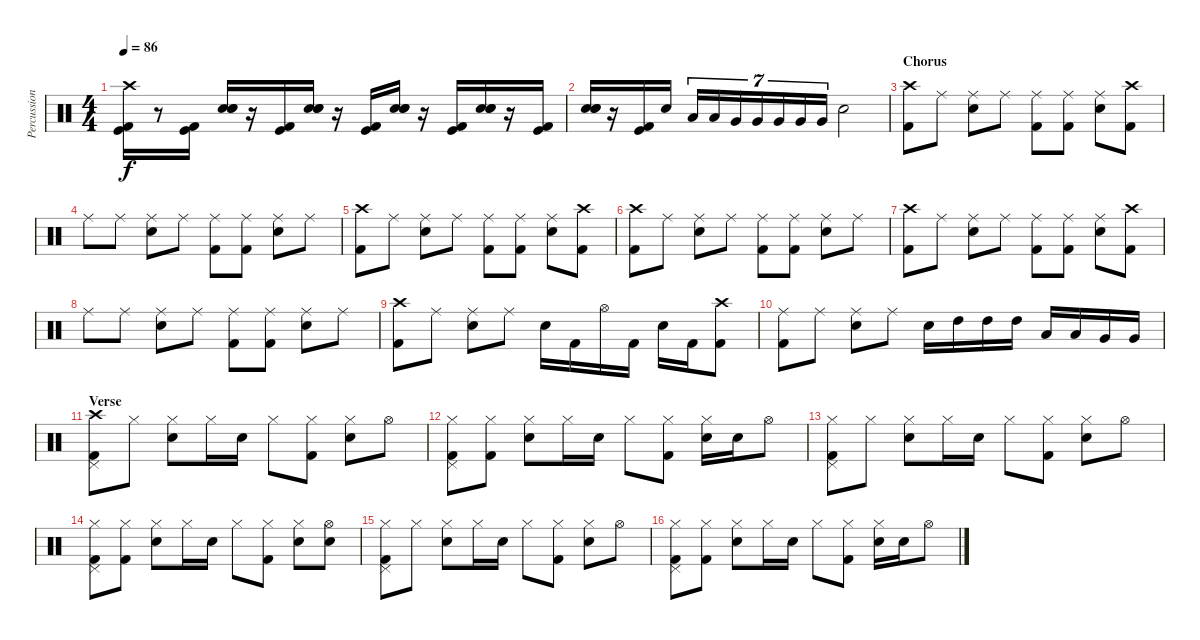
\track ("Percussions (from MIDI)" "Percussion") {instrument percussion}
\staff {score}
\articulation defaults
\ts (4 4)
\tempo 86
\clef neutral
\ks c
("Crash high (hit)" "Kick (hit) 2" "Kick (hit)").16{dy f} r.8 ("Kick (hit) 2" "Kick (hit)").16 ("Snare (hit)" "Snare (hit) 2" "Electric Snare (hit)").16 r.16 ("Kick (hit)" "Kick (hit) 2").16 ("Snare (hit)" "Electric Snare (hit)" "Snare (hit) 2").16 r.16 ("Kick (hit) 2" "Kick (hit)").16 ("Snare (hit)" "Snare (hit) 2" "Electric Snare (hit)").16 r.16 ("Kick (hit)" "Kick (hit) 2").16 ("Snare (hit)" "Electric Snare (hit)" "Snare (hit) 2").16 r.16 ("Kick (hit) 2" "Kick (hit)").16 |
("Snare (hit)" "Electric Snare (hit)" "Snare (hit) 2").16 r.16 ("Kick (hit) 2" "Kick (hit)").16 "Snare (hit) 2".16 "Low Tom (hit)".16{tu (7 4)} "Low Tom (hit)".16{tu (7 4)} "Very Low Tom (hit)".16{tu (7 4)} "Very Low Tom (hit)".16{tu (7 4)} "Very Low Tom (hit)".16{tu (7 4)} "Very Low Tom (hit)".16{tu (7 4)} "Very Low Tom (hit)".16{tu (7 4)} "Electric Snare (hit)".2 |
\section ("" "Chorus")
("Crash high (hit)" "Kick (hit) 2").8 "Ride (middle)".8 ("Ride (middle)" "Electric Snare (hit)").8 "Ride (middle)".8 ("Ride (middle)" "Kick (hit) 2").8 ("Ride (middle)" "Kick (hit) 2").8 ("Ride (middle)" "Electric Snare (hit)").8 ("Crash high (hit)" "Kick (hit) 2").8 |
"Ride (middle)".8 "Ride (middle)".8 ("Ride (middle)" "Electric Snare (hit)").8 "Ride (middle)".8 ("Ride (middle)" "Kick (hit) 2").8 ("Ride (middle)" "Kick (hit) 2").8 ("Ride (middle)" "Electric Snare (hit)").8 "Ride (middle)".8 |
("Crash high (hit)" "Kick (hit) 2").8 "Ride (middle)".8 ("Ride (middle)" "Electric Snare (hit)").8 "Ride (middle)".8 ("Ride (middle)" "Kick (hit) 2").8 ("Ride (middle)" "Kick (hit) 2").8 ("Ride (middle)" "Electric Snare (hit)").8 ("Crash high (hit)" "Kick (hit) 2").8 |
("Crash high (hit)" "Kick (hit) 2").8 "Ride (middle)".8 ("Ride (middle)" "Electric Snare (hit)").8 "Ride (middle)".8 ("Ride (middle)" "Kick (hit) 2").8 ("Ride (middle)" "Kick (hit) 2").8 ("Ride (middle)" "Electric Snare (hit)").8 "Ride (middle)".8 |
("Crash high (hit)" "Kick (hit) 2").8 "Ride (middle)".8 ("Ride (middle)" "Electric Snare (hit)").8 "Ride (middle)".8 ("Ride (middle)" "Kick (hit) 2").8 ("Ride (middle)" "Kick (hit) 2").8 ("Ride (middle)" "Electric Snare (hit)").8 ("Crash high (hit)" "Kick (hit) 2").8 |
"Ride (middle)".8 "Ride (middle)".8 ("Ride (middle)" "Electric Snare (hit)").8 "Ride (middle)".8 ("Ride (middle)" "Kick (hit) 2").8 ("Ride (middle)" "Kick (hit) 2").8 ("Ride (middle)" "Electric Snare (hit)").8 "Ride (middle)".8 |
("Crash high (hit)" "Kick (hit) 2").8 "Ride (middle)".8 ("Ride (middle)" "Electric Snare (hit)").8 "Ride (middle)".8 "Electric Snare (hit)".16 "Kick (hit) 2".16 "Hi-Hat (open)".16 "Kick (hit) 2".16 "Electric Snare (hit)".16 "Kick (hit) 2".16 ("Crash high (hit)" "Kick (hit) 2").8 |
("Ride (middle)" "Kick (hit) 2").8 "Ride (middle)".8 ("Ride (middle)" "Electric Snare (hit)").8 "Ride (middle)".8 "Electric Snare (hit)".16 "High Tom (hit)".16 "High Tom (hit)".16 "High Tom (hit)".16 "Low Tom (hit)".16 "Low Tom (hit)".16 "Very Low Tom (hit)".16 "Very Low Tom (hit)".16 |
\section ("" "Verse")
("Crash high (hit)" "Kick (hit) 2" "Pedal Hi-Hat (hit)").8 "Hi-Hat (closed)".8 ("Hi-Hat (closed)" "Electric Snare (hit)").8 "Hi-Hat (closed)".16 "Electric Snare (hit)".16 "Hi-Hat (closed)".8 ("Hi-Hat (closed)" "Kick (hit) 2").8 ("Hi-Hat (closed)" "Electric Snare (hit)").8 "Hi-Hat (open)".8 |
("Hi-Hat (closed)" "Kick (hit) 2" "Pedal Hi-Hat (hit)").8 ("Hi-Hat (closed)" "Kick (hit) 2").8 ("Hi-Hat (closed)" "Electric Snare (hit)").8 "Hi-Hat (closed)".16 "Electric Snare (hit)".16 "Hi-Hat (closed)".8 ("Hi-Hat (closed)" "Kick (hit) 2").8 ("Hi-Hat (closed)" "Electric Snare (hit)").16 "Electric Snare (hit)".16 "Hi-Hat (open)".8 |
("Hi-Hat (closed)" "Kick (hit) 2" "Pedal Hi-Hat (hit)").8 "Hi-Hat (closed)".8 ("Hi-Hat (closed)" "Electric Snare (hit)").8 "Hi-Hat (closed)".16 "Electric Snare (hit)".16 "Hi-Hat (closed)".8 ("Hi-Hat (closed)" "Kick (hit) 2").8 ("Hi-Hat (closed)" "Electric Snare (hit)").8 "Hi-Hat (open)".8 |
("Hi-Hat (closed)" "Kick (hit) 2" "Pedal Hi-Hat (hit)").8 ("Hi-Hat (closed)" "Kick (hit) 2").8 ("Hi-Hat (closed)" "Electric Snare (hit)").8 "Hi-Hat (closed)".16 "Electric Snare (hit)".16 "Hi-Hat (closed)".8 ("Hi-Hat (closed)" "Kick (hit) 2").8 ("Hi-Hat (closed)" "Electric Snare (hit)").8 ("Hi-Hat (open)" "Electric Snare (hit)").8 |
("Hi-Hat (closed)" "Kick (hit) 2" "Pedal Hi-Hat (hit)").8 "Hi-Hat (closed)".8 ("Hi-Hat (closed)" "Electric Snare (hit)").8 "Hi-Hat (closed)".16 "Electric Snare (hit)".16 "Hi-Hat (closed)".8 ("Hi-Hat (closed)" "Kick (hit) 2").8 ("Hi-Hat (closed)" "Electric Snare (hit)").8 "Hi-Hat (open)".8 |
("Hi-Hat (closed)" "Kick (hit) 2" "Pedal Hi-Hat (hit)").8 ("Hi-Hat (closed)" "Kick (hit) 2").8 ("Hi-Hat (closed)" "Electric Snare (hit)").8 "Hi-Hat (closed)".16 "Electric Snare (hit)".16 "Hi-Hat (closed)".8 ("Hi-Hat (closed)" "Kick (hit) 2").8 ("Hi-Hat (closed)" "Electric Snare (hit)").16 "Electric Snare (hit)".16 "Hi-Hat (open)".8
